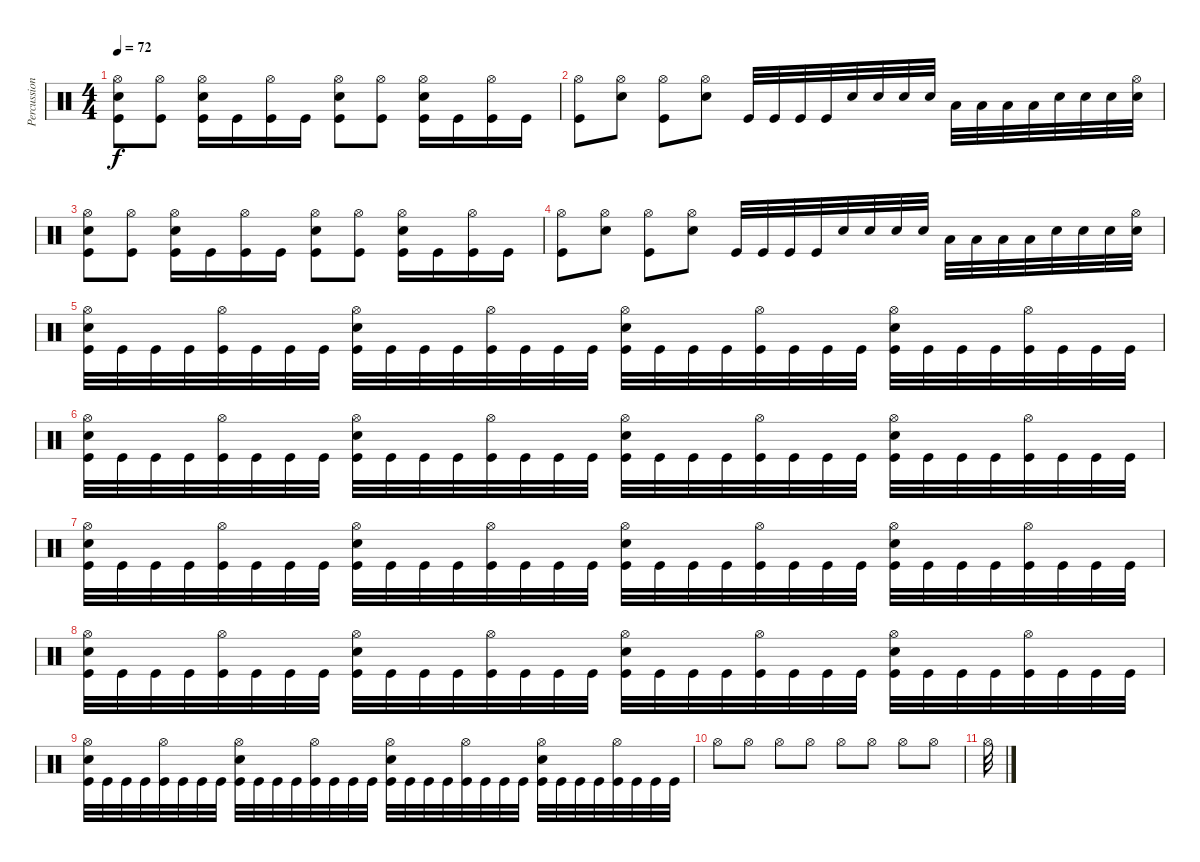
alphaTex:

\track ("Percussion" "Percussion") {instrument percussion}
\staff {score}
\articulation defaults
\ts (4 4)
\tempo 72
\clef neutral
\ks c
("Kick (hit)" "Snare (hit) 2" "Hi-Hat (open)").8{dy f} ("Kick (hit)" "Hi-Hat (open)").8 ("Kick (hit)" "Snare (hit) 2" "Hi-Hat (open)").16 "Kick (hit)".16 ("Kick (hit)" "Hi-Hat (open)").16 "Kick (hit)".16 ("Kick (hit)" "Snare (hit) 2" "Hi-Hat (open)").8 ("Kick (hit)" "Hi-Hat (open)").8 ("Kick (hit)" "Snare (hit) 2" "Hi-Hat (open)").16 "Kick (hit)".16 ("Kick (hit)" "Hi-Hat (open)").16 "Kick (hit)".16 |
("Kick (hit)" "Hi-Hat (open)").8 ("Snare (hit) 2" "Hi-Hat (open)").8 ("Kick (hit)" "Hi-Hat (open)").8 ("Snare (hit) 2" "Hi-Hat (open)").8 "Kick (hit)".32 "Kick (hit)".32 "Kick (hit)".32 "Kick (hit)".32 "Snare (hit) 2".32 "Snare (hit) 2".32 "Snare (hit) 2".32 "Snare (hit) 2".32 "Low Floor Tom (hit)".32 "Low Floor Tom (hit)".32 "Low Floor Tom (hit)".32 "Low Floor Tom (hit)".32 "Snare (hit) 2".32 "Snare (hit) 2".32 "Snare (hit) 2".32 ("Snare (hit) 2" "Hi-Hat (open)").32 |
("Kick (hit)" "Snare (hit) 2" "Hi-Hat (open)").8 ("Kick (hit)" "Hi-Hat (open)").8 ("Kick (hit)" "Snare (hit) 2" "Hi-Hat (open)").16 "Kick (hit)".16 ("Kick (hit)" "Hi-Hat (open)").16 "Kick (hit)".16 ("Kick (hit)" "Snare (hit) 2" "Hi-Hat (open)").8 ("Kick (hit)" "Hi-Hat (open)").8 ("Kick (hit)" "Snare (hit) 2" "Hi-Hat (open)").16 "Kick (hit)".16 ("Kick (hit)" "Hi-Hat (open)").16 "Kick (hit)".16 |
("Kick (hit)" "Hi-Hat (open)").8 ("Snare (hit) 2" "Hi-Hat (open)").8 ("Kick (hit)" "Hi-Hat (open)").8 ("Snare (hit) 2" "Hi-Hat (open)").8 "Kick (hit)".32 "Kick (hit)".32 "Kick (hit)".32 "Kick (hit)".32 "Snare (hit) 2".32 "Snare (hit) 2".32 "Snare (hit) 2".32 "Snare (hit) 2".32 "Low Floor Tom (hit)".32 "Low Floor Tom (hit)".32 "Low Floor Tom (hit)".32 "Low Floor Tom (hit)".32 "Snare (hit) 2".32 "Snare (hit) 2".32 "Snare (hit) 2".32 ("Snare (hit) 2" "Hi-Hat (open)").32 |
("Kick (hit)" "Snare (hit) 2" "Hi-Hat (open)").32 "Kick (hit)".32 "Kick (hit)".32 "Kick (hit)".32 ("Kick (hit)" "Hi-Hat (open)").32 "Kick (hit)".32 "Kick (hit)".32 "Kick (hit)".32 ("Kick (hit)" "Snare (hit) 2" "Hi-Hat (open)").32 "Kick (hit)".32 "Kick (hit)".32 "Kick (hit)".32 ("Kick (hit)" "Hi-Hat (open)").32 "Kick (hit)".32 "Kick (hit)".32 "Kick (hit)".32 ("Kick (hit)" "Snare (hit) 2" "Hi-Hat (open)").32 "Kick (hit)".32 "Kick (hit)".32 "Kick (hit)".32 ("Kick (hit)" "Hi-Hat (open)").32 "Kick (hit)".32 "Kick (hit)".32 "Kick (hit)".32 ("Kick (hit)" "Snare (hit) 2" "Hi-Hat (open)").32 "Kick (hit)".32 "Kick (hit)".32 "Kick (hit)".32 ("Kick (hit)" "Hi-Hat (open)").32 "Kick (hit)".32 "Kick (hit)".32 "Kick (hit)".32 |
("Kick (hit)" "Snare (hit) 2" "Hi-Hat (open)").32 "Kick (hit)".32 "Kick (hit)".32 "Kick (hit)".32 ("Kick (hit)" "Hi-Hat (open)").32 "Kick (hit)".32 "Kick (hit)".32 "Kick (hit)".32 ("Kick (hit)" "Snare (hit) 2" "Hi-Hat (open)").32 "Kick (hit)".32 "Kick (hit)".32 "Kick (hit)".32 ("Kick (hit)" "Hi-Hat (open)").32 "Kick (hit)".32 "Kick (hit)".32 "Kick (hit)".32 ("Kick (hit)" "Snare (hit) 2" "Hi-Hat (open)").32 "Kick (hit)".32 "Kick (hit)".32 "Kick (hit)".32 ("Kick (hit)" "Hi-Hat (open)").32 "Kick (hit)".32 "Kick (hit)".32 "Kick (hit)".32 ("Kick (hit)" "Snare (hit) 2" "Hi-Hat (open)").32 "Kick (hit)".32 "Kick (hit)".32 "Kick (hit)".32 ("Kick (hit)" "Hi-Hat (open)").32 "Kick (hit)".32 "Kick (hit)".32 "Kick (hit)".32 |
("Kick (hit)" "Snare (hit) 2" "Hi-Hat (open)").32 "Kick (hit)".32 "Kick (hit)".32 "Kick (hit)".32 ("Kick (hit)" "Hi-Hat (open)").32 "Kick (hit)".32 "Kick (hit)".32 "Kick (hit)".32 ("Kick (hit)" "Snare (hit) 2" "Hi-Hat (open)").32 "Kick (hit)".32 "Kick (hit)".32 "Kick (hit)".32 ("Kick (hit)" "Hi-Hat (open)").32 "Kick (hit)".32 "Kick (hit)".32 "Kick (hit)".32 ("Kick (hit)" "Snare (hit) 2" "Hi-Hat (open)").32 "Kick (hit)".32 "Kick (hit)".32 "Kick (hit)".32 ("Kick (hit)" "Hi-Hat (open)").32 "Kick (hit)".32 "Kick (hit)".32 "Kick (hit)".32 ("Kick (hit)" "Snare (hit) 2" "Hi-Hat (open)").32 "Kick (hit)".32 "Kick (hit)".32 "Kick (hit)".32 ("Kick (hit)" "Hi-Hat (open)").32 "Kick (hit)".32 "Kick (hit)".32 "Kick (hit)".32 |
("Kick (hit)" "Snare (hit) 2" "Hi-Hat (open)").32 "Kick (hit)".32 "Kick (hit)".32 "Kick (hit)".32 ("Kick (hit)" "Hi-Hat (open)").32 "Kick (hit)".32 "Kick (hit)".32 "Kick (hit)".32 ("Kick (hit)" "Snare (hit) 2" "Hi-Hat (open)").32 "Kick (hit)".32 "Kick (hit)".32 "Kick (hit)".32 ("Kick (hit)" "Hi-Hat (open)").32 "Kick (hit)".32 "Kick (hit)".32 "Kick (hit)".32 ("Kick (hit)" "Snare (hit) 2" "Hi-Hat (open)").32 "Kick (hit)".32 "Kick (hit)".32 "Kick (hit)".32 ("Kick (hit)" "Hi-Hat (open)").32 "Kick (hit)".32 "Kick (hit)".32 "Kick (hit)".32 ("Kick (hit)" "Snare (hit) 2" "Hi-Hat (open)").32 "Kick (hit)".32 "Kick (hit)".32 "Kick (hit)".32 ("Kick (hit)" "Hi-Hat (open)").32 "Kick (hit)".32 "Kick (hit)".32 "Kick (hit)".32 |
("Kick (hit)" "Snare (hit) 2" "Hi-Hat (open)").32 "Kick (hit)".32 "Kick (hit)".32 "Kick (hit)".32 ("Kick (hit)" "Hi-Hat (open)").32 "Kick (hit)".32 "Kick (hit)".32 "Kick (hit)".32 ("Kick (hit)" "Snare (hit) 2" "Hi-Hat (open)").32 "Kick (hit)".32 "Kick (hit)".32 "Kick (hit)".32 ("Kick (hit)" "Hi-Hat (open)").32 "Kick (hit)".32 "Kick (hit)".32 "Kick (hit)".32 ("Kick (hit)" "Snare (hit) 2" "Hi-Hat (open)").32 "Kick (hit)".32 "Kick (hit)".32 "Kick (hit)".32 ("Kick (hit)" "Hi-Hat (open)").32 "Kick (hit)".32 "Kick (hit)".32 "Kick (hit)".32 ("Kick (hit)" "Snare (hit) 2" "Hi-Hat (open)").32 "Kick (hit)".32 "Kick (hit)".32 "Kick (hit)".32 ("Kick (hit)" "Hi-Hat (open)").32 "Kick (hit)".32 "Kick (hit)".32 "Kick (hit)".32 |
"Hi-Hat (open)".8 "Hi-Hat (open)".8 "Hi-Hat (open)".8 "Hi-Hat (open)".8 "Hi-Hat (open)".8 "Hi-Hat (open)".8 "Hi-Hat (open)".8 "Hi-Hat (open)".8 |
"Hi-Hat (open)".32
